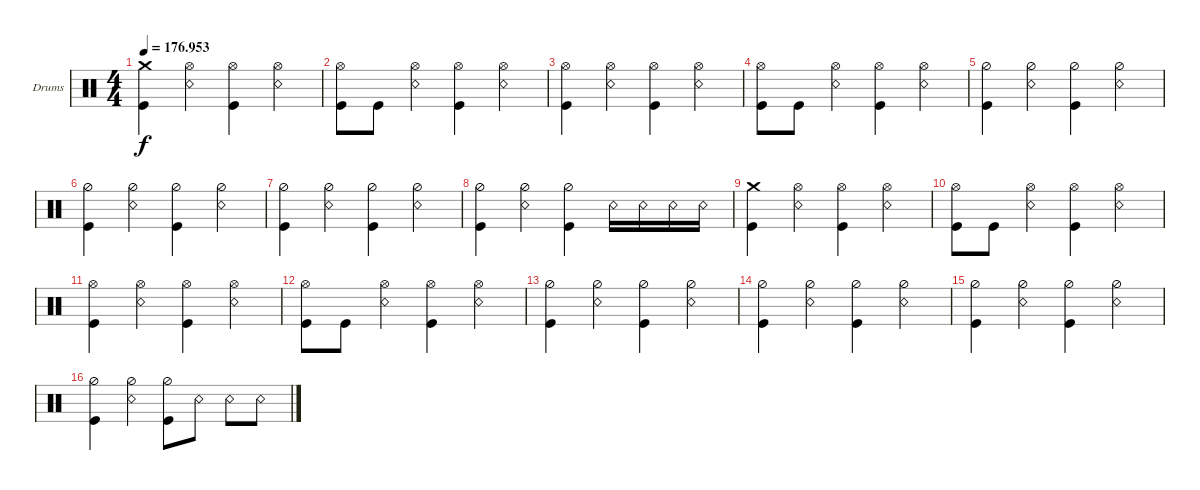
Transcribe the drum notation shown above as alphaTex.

\defaultSystemsLayout 4
\bracketExtendMode groupsimilarinstruments
\firstSystemTrackNameOrientation horizontal
\otherSystemsTrackNameOrientation horizontal
\track ("Christopher" "Drums") {instrument percussion}
\staff {score}
\articulation defaults
\ts (4 4)
\tempo
176.953
\accidentals auto
\clef neutral
\ottava regular
\simile none
\ks c
("Crash medium (hit)" "Kick (hit)").4{dy f} ("Snare (rim shot)" "Hi-Hat (open)").4 ("Hi-Hat (open)" "Kick (hit)").4 ("Snare (rim shot)" "Hi-Hat (open)").4 |
("Kick (hit)" "Hi-Hat (open)").8 "Kick (hit)".8 ("Snare (rim shot)" "Hi-Hat (open)").4 ("Kick (hit)" "Hi-Hat (open)").4 ("Snare (rim shot)" "Hi-Hat (open)").4 |
("Kick (hit)" "Hi-Hat (open)").4 ("Snare (rim shot)" "Hi-Hat (open)").4 ("Hi-Hat (open)" "Kick (hit)").4 ("Snare (rim shot)" "Hi-Hat (open)").4 |
("Kick (hit)" "Hi-Hat (open)").8 "Kick (hit)".8 ("Snare (rim shot)" "Hi-Hat (open)").4 ("Kick (hit)" "Hi-Hat (open)").4 ("Snare (rim shot)" "Hi-Hat (open)").4 |
("Kick (hit)" "Hi-Hat (half)").4 ("Snare (rim shot)" "Hi-Hat (half)").4 ("Kick (hit)" "Hi-Hat (half)").4 ("Snare (rim shot)" "Hi-Hat (half)").4 |
("Kick (hit)" "Hi-Hat (half)").4 ("Snare (rim shot)" "Hi-Hat (half)").4 ("Kick (hit)" "Hi-Hat (half)").4 ("Snare (rim shot)" "Hi-Hat (half)").4 |
("Kick (hit)" "Hi-Hat (half)").4 ("Snare (rim shot)" "Hi-Hat (half)").4 ("Kick (hit)" "Hi-Hat (half)").4 ("Snare (rim shot)" "Hi-Hat (half)").4 |
("Hi-Hat (half)" "Kick (hit)").4 ("Hi-Hat (half)" "Snare (rim shot)").4 ("Hi-Hat (half)" "Kick (hit)").4 "Snare (rim shot)".16 "Snare (rim shot)".16 "Snare (rim shot)".16 "Snare (rim shot)".16 |
("Crash medium (hit)" "Kick (hit)").4 ("Snare (rim shot)" "Hi-Hat (open)").4 ("Hi-Hat (open)" "Kick (hit)").4 ("Snare (rim shot)" "Hi-Hat (open)").4 |
("Kick (hit)" "Hi-Hat (open)").8 "Kick (hit)".8 ("Snare (rim shot)" "Hi-Hat (open)").4 ("Kick (hit)" "Hi-Hat (open)").4 ("Snare (rim shot)" "Hi-Hat (open)").4 |
("Kick (hit)" "Hi-Hat (open)").4 ("Snare (rim shot)" "Hi-Hat (open)").4 ("Hi-Hat (open)" "Kick (hit)").4 ("Snare (rim shot)" "Hi-Hat (open)").4 |
("Kick (hit)" "Hi-Hat (open)").8 "Kick (hit)".8 ("Snare (rim shot)" "Hi-Hat (open)").4 ("Kick (hit)" "Hi-Hat (open)").4 ("Snare (rim shot)" "Hi-Hat (open)").4 |
("Kick (hit)" "Hi-Hat (half)").4 ("Snare (rim shot)" "Hi-Hat (half)").4 ("Kick (hit)" "Hi-Hat (half)").4 ("Snare (rim shot)" "Hi-Hat (half)").4 |
("Kick (hit)" "Hi-Hat (half)").4 ("Snare (rim shot)" "Hi-Hat (half)").4 ("Kick (hit)" "Hi-Hat (half)").4 ("Snare (rim shot)" "Hi-Hat (half)").4 |
("Kick (hit)" "Hi-Hat (half)").4 ("Snare (rim shot)" "Hi-Hat (half)").4 ("Kick (hit)" "Hi-Hat (half)").4 ("Snare (rim shot)" "Hi-Hat (half)").4 |
("Hi-Hat (half)" "Kick (hit)").4 ("Hi-Hat (half)" "Snare (rim shot)").4 ("Hi-Hat (half)" "Kick (hit)").8 "Snare (rim shot)".8 "Snare (rim shot)".8 "Snare (rim shot)".8
